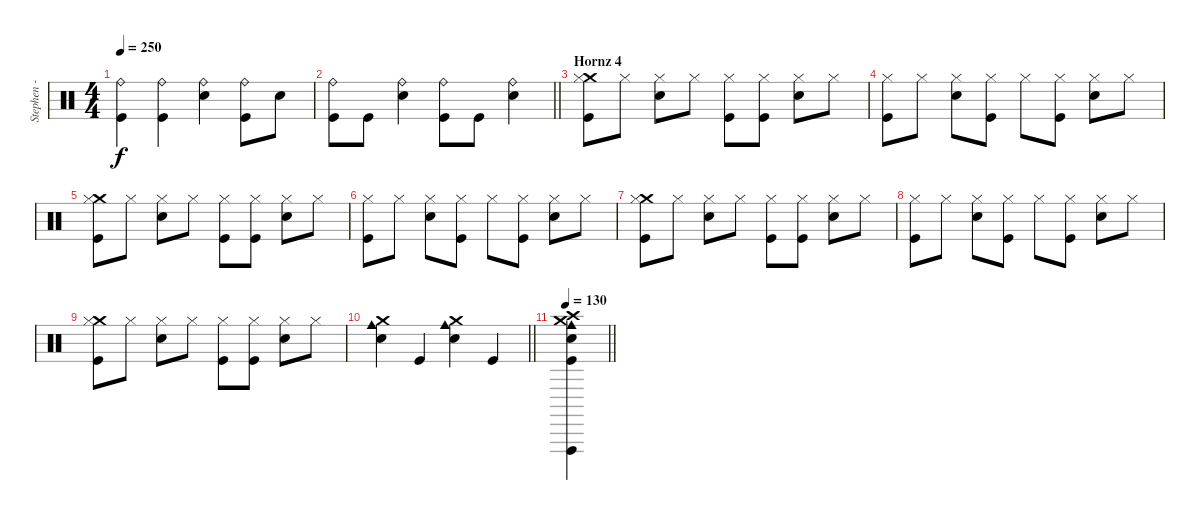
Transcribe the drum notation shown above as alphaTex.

\track ("Stephen - Drums" "Stephen - ") {instrument percussion}
\staff {score}
\articulation defaults
\ts (4 4)
\tempo 250
\clef neutral
\ks c
("Ride (bell)" "Kick (hit)").4{dy f} ("Ride (bell)" "Kick (hit)").4 ("Snare (hit) 2" "Ride (bell)").4 ("Ride (bell)" "Kick (hit)").8 "Snare (hit) 2".8 |
\barLineRight lightlight
("Ride (bell)" "Kick (hit)").8 "Kick (hit)".8 ("Snare (hit) 2" "Ride (bell)").4 ("Ride (bell)" "Kick (hit)").8 "Kick (hit)".8 ("Snare (hit) 2" "Ride (bell)").4 |
\section ("" "Hornz 4")
("Crash medium (hit)" "Hi-Hat (closed)" "Kick (hit)").8 "Hi-Hat (closed)".8 ("Hi-Hat (closed)" "Snare (hit) 2").8 "Hi-Hat (closed)".8 ("Hi-Hat (closed)" "Kick (hit)").8 ("Hi-Hat (closed)" "Kick (hit)").8 ("Hi-Hat (closed)" "Snare (hit) 2").8 "Hi-Hat (closed)".8 |
("Hi-Hat (closed)" "Kick (hit)").8 "Hi-Hat (closed)".8 ("Hi-Hat (closed)" "Snare (hit) 2").8 ("Hi-Hat (closed)" "Kick (hit)").8 "Hi-Hat (closed)".8 ("Hi-Hat (closed)" "Kick (hit)").8 ("Hi-Hat (closed)" "Snare (hit) 2").8 "Hi-Hat (closed)".8 |
("Crash medium (hit)" "Hi-Hat (closed)" "Kick (hit)").8 "Hi-Hat (closed)".8 ("Hi-Hat (closed)" "Snare (hit) 2").8 "Hi-Hat (closed)".8 ("Hi-Hat (closed)" "Kick (hit)").8 ("Hi-Hat (closed)" "Kick (hit)").8 ("Hi-Hat (closed)" "Snare (hit) 2").8 "Hi-Hat (closed)".8 |
("Hi-Hat (closed)" "Kick (hit)").8 "Hi-Hat (closed)".8 ("Hi-Hat (closed)" "Snare (hit) 2").8 ("Hi-Hat (closed)" "Kick (hit)").8 "Hi-Hat (closed)".8 ("Hi-Hat (closed)" "Kick (hit)").8 ("Hi-Hat (closed)" "Snare (hit) 2").8 "Hi-Hat (closed)".8 |
("Crash medium (hit)" "Hi-Hat (closed)" "Kick (hit)").8 "Hi-Hat (closed)".8 ("Hi-Hat (closed)" "Snare (hit) 2").8 "Hi-Hat (closed)".8 ("Hi-Hat (closed)" "Kick (hit)").8 ("Hi-Hat (closed)" "Kick (hit)").8 ("Hi-Hat (closed)" "Snare (hit) 2").8 "Hi-Hat (closed)".8 |
("Hi-Hat (closed)" "Kick (hit)").8 "Hi-Hat (closed)".8 ("Hi-Hat (closed)" "Snare (hit) 2").8 ("Hi-Hat (closed)" "Kick (hit)").8 "Hi-Hat (closed)".8 ("Hi-Hat (closed)" "Kick (hit)").8 ("Hi-Hat (closed)" "Snare (hit) 2").8 "Hi-Hat (closed)".8 |
("Crash medium (hit)" "Hi-Hat (closed)" "Kick (hit)").8 "Hi-Hat (closed)".8 ("Hi-Hat (closed)" "Snare (hit) 2").8 "Hi-Hat (closed)".8 ("Hi-Hat (closed)" "Kick (hit)").8 ("Hi-Hat (closed)" "Kick (hit)").8 ("Hi-Hat (closed)" "Snare (hit) 2").8 "Hi-Hat (closed)".8 |
\barLineRight lightlight
("Crash medium (hit)" "Cowbell medium (hit)" "Snare (hit) 2").4 "Kick (hit)".4 ("Crash medium (hit)" "Cowbell medium (hit)" "Snare (hit) 2").4 "Kick (hit)".4 |
\tempo 130
\barLineRight lightlight
("Vibraslap (hit)" "Crash high (hit)" "Cowbell medium (hit)" "Crash medium (hit)" "Snare (hit) 2" "Kick (hit)").4
